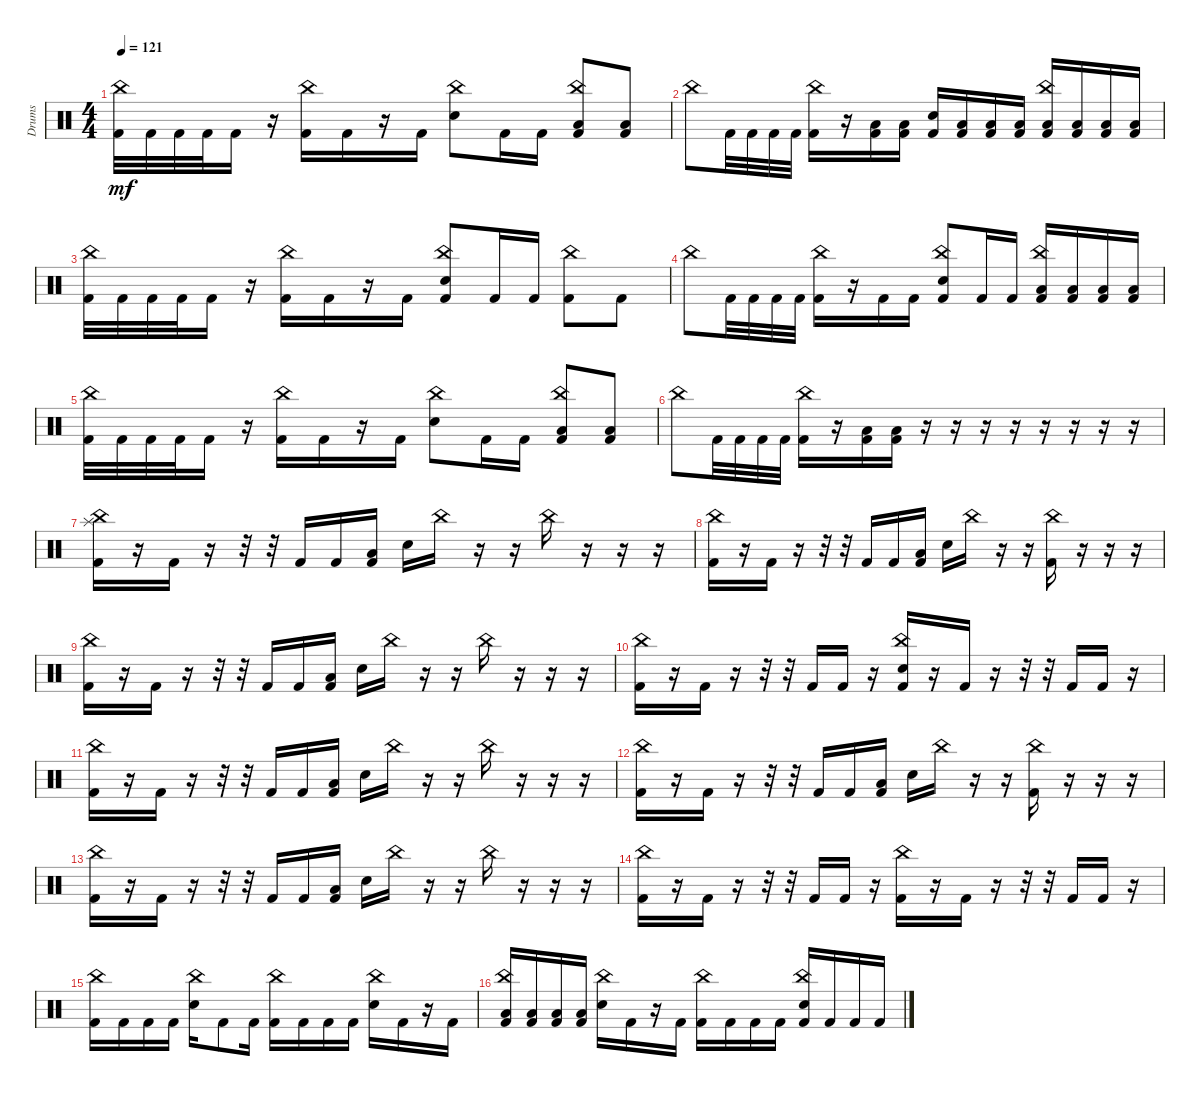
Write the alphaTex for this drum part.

\track ("Drums" "Drums") {instrument percussion}
\staff {score}
\articulation defaults
\ts (4 4)
\tempo 121
\clef neutral
\ks c
("Kick (hit) 2" "China (hit)").32{dy mf} "Kick (hit) 2".32 "Kick (hit) 2".32 "Kick (hit) 2".32 "Kick (hit) 2".16 r.16 ("Kick (hit) 2" "China (hit)").16 "Kick (hit) 2".16 r.16 "Kick (hit) 2".16 ("Snare (hit) 2" "China (hit)").8 "Kick (hit) 2".16 "Kick (hit) 2".16 ("Kick (hit) 2" "Low Tom (hit)" "China (hit)").8 ("Kick (hit) 2" "Low Tom (hit)").8 |
"China (hit)".8 "Kick (hit) 2".32 "Kick (hit) 2".32 "Kick (hit) 2".32 "Kick (hit) 2".32 ("Kick (hit) 2" "China (hit)").16 r.16 ("Kick (hit) 2" "Low Tom (hit)").16 ("Kick (hit) 2" "Low Tom (hit)").16 ("Kick (hit) 2" "Snare (hit) 2").16 ("Kick (hit) 2" "Low Tom (hit)").16 ("Kick (hit) 2" "Low Tom (hit)").16 ("Kick (hit) 2" "Low Tom (hit)").16 ("Kick (hit) 2" "Low Tom (hit)" "China (hit)").16 ("Kick (hit) 2" "Low Tom (hit)").16 ("Kick (hit) 2" "Low Tom (hit)").16 ("Kick (hit) 2" "Low Tom (hit)").16 |
("Kick (hit) 2" "China (hit)").32 "Kick (hit) 2".32 "Kick (hit) 2".32 "Kick (hit) 2".32 "Kick (hit) 2".16 r.16 ("Kick (hit) 2" "China (hit)").16 "Kick (hit) 2".16 r.16 "Kick (hit) 2".16 ("Snare (hit) 2" "Kick (hit) 2" "China (hit)").8 "Kick (hit) 2".16 "Kick (hit) 2".16 ("Kick (hit) 2" "China (hit)").8 "Kick (hit) 2".8 |
"China (hit)".8 "Kick (hit) 2".32 "Kick (hit) 2".32 "Kick (hit) 2".32 "Kick (hit) 2".32 ("Kick (hit) 2" "China (hit)").16 r.16 "Kick (hit) 2".16 "Kick (hit) 2".16 ("Snare (hit) 2" "Kick (hit) 2" "China (hit)").8 "Kick (hit) 2".16 "Kick (hit) 2".16 ("Kick (hit) 2" "Low Tom (hit)" "China (hit)").16 ("Kick (hit) 2" "Low Tom (hit)").16 ("Kick (hit) 2" "Low Tom (hit)").16 ("Kick (hit) 2" "Low Tom (hit)").16 |
("Kick (hit) 2" "China (hit)").32 "Kick (hit) 2".32 "Kick (hit) 2".32 "Kick (hit) 2".32 "Kick (hit) 2".16 r.16 ("Kick (hit) 2" "China (hit)").16 "Kick (hit) 2".16 r.16 "Kick (hit) 2".16 ("Snare (hit) 2" "China (hit)").8 "Kick (hit) 2".16 "Kick (hit) 2".16 ("Kick (hit) 2" "Low Tom (hit)" "China (hit)").8 ("Kick (hit) 2" "Low Tom (hit)").8 |
"China (hit)".8 "Kick (hit) 2".32 "Kick (hit) 2".32 "Kick (hit) 2".32 "Kick (hit) 2".32 ("Kick (hit) 2" "China (hit)").16 r.16 ("Kick (hit) 2" "Low Tom (hit)").16 ("Kick (hit) 2" "Low Tom (hit)").16 r.16 r.16 r.16 r.16 r.16 r.16 r.16 r.16 |
("Kick (hit) 2" "China (hit)" "Splash (hit)").16 r.16 "Kick (hit) 2".16 r.16 r.32 r.32 "Kick (hit) 2".16 "Kick (hit) 2".16 ("Low Tom (hit)" "Kick (hit) 2").16 "Snare (hit) 2".16 "China (hit)".16 r.16 r.16 "China (hit)".16 r.16 r.16 r.16 |
("Kick (hit) 2" "China (hit)").16 r.16 "Kick (hit) 2".16 r.16 r.32 r.32 "Kick (hit) 2".16 "Kick (hit) 2".16 ("Kick (hit) 2" "Low Tom (hit)").16 "Snare (hit) 2".16 "China (hit)".16 r.16 r.16 ("Kick (hit) 2" "China (hit)").16 r.16 r.16 r.16 |
("Kick (hit) 2" "China (hit)").16 r.16 "Kick (hit) 2".16 r.16 r.32 r.32 "Kick (hit) 2".16 "Kick (hit) 2".16 ("Low Tom (hit)" "Kick (hit) 2").16 "Snare (hit) 2".16 "China (hit)".16 r.16 r.16 "China (hit)".16 r.16 r.16 r.16 |
("Kick (hit) 2" "China (hit)").16 r.16 "Kick (hit) 2".16 r.16 r.32 r.32 "Kick (hit) 2".16 "Kick (hit) 2".16 r.16 ("Kick (hit) 2" "China (hit)" "Snare (hit) 2").16 r.16 "Kick (hit) 2".16 r.16 r.32 r.32 "Kick (hit) 2".16 "Kick (hit) 2".16 r.16 |
("Kick (hit) 2" "China (hit)").16 r.16 "Kick (hit) 2".16 r.16 r.32 r.32 "Kick (hit) 2".16 "Kick (hit) 2".16 ("Low Tom (hit)" "Kick (hit) 2").16 "Snare (hit) 2".16 "China (hit)".16 r.16 r.16 "China (hit)".16 r.16 r.16 r.16 |
("Kick (hit) 2" "China (hit)").16 r.16 "Kick (hit) 2".16 r.16 r.32 r.32 "Kick (hit) 2".16 "Kick (hit) 2".16 ("Kick (hit) 2" "Low Tom (hit)").16 "Snare (hit) 2".16 "China (hit)".16 r.16 r.16 ("Kick (hit) 2" "China (hit)").16 r.16 r.16 r.16 |
("Kick (hit) 2" "China (hit)").16 r.16 "Kick (hit) 2".16 r.16 r.32 r.32 "Kick (hit) 2".16 "Kick (hit) 2".16 ("Low Tom (hit)" "Kick (hit) 2").16 "Snare (hit) 2".16 "China (hit)".16 r.16 r.16 "China (hit)".16 r.16 r.16 r.16 |
("Kick (hit) 2" "China (hit)").16 r.16 "Kick (hit) 2".16 r.16 r.32 r.32 "Kick (hit) 2".16 "Kick (hit) 2".16 r.16 ("Kick (hit) 2" "China (hit)").16 r.16 "Kick (hit) 2".16 r.16 r.32 r.32 "Kick (hit) 2".16 "Kick (hit) 2".16 r.16 |
("Kick (hit) 2" "China (hit)").16 "Kick (hit) 2".16 "Kick (hit) 2".16 "Kick (hit) 2".16 ("Snare (hit) 2" "China (hit)").16 "Kick (hit) 2".8 "Kick (hit) 2".16 ("Kick (hit) 2" "China (hit)").16 "Kick (hit) 2".16 "Kick (hit) 2".16 "Kick (hit) 2".16 ("Snare (hit) 2" "China (hit)").16 "Kick (hit) 2".16 r.16 "Kick (hit) 2".16 |
("Kick (hit) 2" "Low Tom (hit)" "China (hit)").16 ("Kick (hit) 2" "Low Tom (hit)").16 ("Kick (hit) 2" "Low Tom (hit)").16 ("Kick (hit) 2" "Low Tom (hit)").16 ("Snare (hit) 2" "China (hit)").16 "Kick (hit) 2".16 r.16 "Kick (hit) 2".16 ("Kick (hit) 2" "China (hit)").16 "Kick (hit) 2".16 "Kick (hit) 2".16 "Kick (hit) 2".16 ("Kick (hit) 2" "Snare (hit) 2" "China (hit)").16 "Kick (hit) 2".16 "Kick (hit) 2".16 "Kick (hit) 2".16
